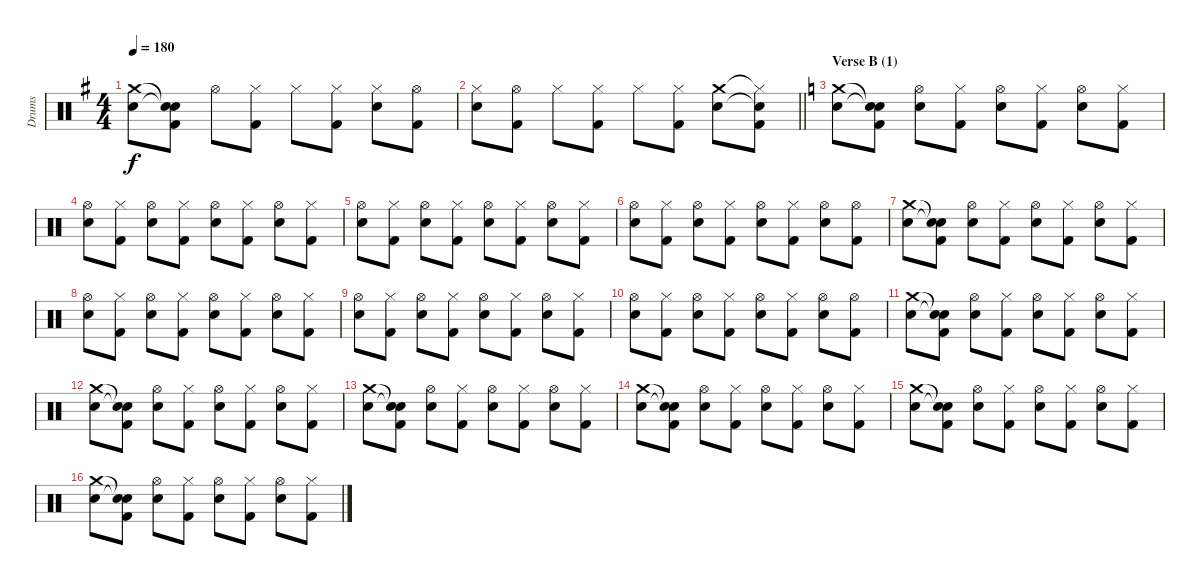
\track ("Drums" "Drums") {instrument percussion}
\staff {score}
\articulation defaults
\ts (4 4)
\tempo 180
\clef neutral
\ks g
("Crash medium (hit)" "Electric Snare (hit)").8{dy f} ("Snare (hit)"{t} "Snare (hit)"{t} "Kick (hit) 2").8 "Hi-Hat (open)".8 ("Hi-Hat (closed)" "Kick (hit) 2").8 "Hi-Hat (closed)".8 ("Hi-Hat (closed)" "Kick (hit) 2").8 ("Hi-Hat (closed)" "Electric Snare (hit)").8 ("Hi-Hat (open)" "Kick (hit) 2").8 |
\barLineRight lightlight
("Hi-Hat (closed)" "Electric Snare (hit)").8 ("Hi-Hat (open)" "Kick (hit) 2").8 "Hi-Hat (closed)".8 ("Hi-Hat (closed)" "Kick (hit) 2").8 "Hi-Hat (closed)".8 ("Hi-Hat (closed)" "Kick (hit) 2").8 ("Crash medium (hit)" "Electric Snare (hit)").8 ("Hi-Hat (closed)"{t} "Snare (hit)"{t} "Kick (hit) 2").8 |
\section ("" "Verse B (1)")
\ks c
("Crash medium (hit)" "Electric Snare (hit)").8 ("Snare (hit)"{t} "Snare (hit)"{t} "Kick (hit) 2").8 ("Hi-Hat (open)" "Electric Snare (hit)").8 ("Hi-Hat (closed)" "Kick (hit) 2").8 ("Hi-Hat (open)" "Electric Snare (hit)").8 ("Hi-Hat (closed)" "Kick (hit) 2").8 ("Hi-Hat (open)" "Electric Snare (hit)").8 ("Hi-Hat (closed)" "Kick (hit) 2").8 |
("Hi-Hat (open)" "Electric Snare (hit)").8 ("Hi-Hat (closed)" "Kick (hit) 2").8 ("Hi-Hat (open)" "Electric Snare (hit)").8 ("Hi-Hat (closed)" "Kick (hit) 2").8 ("Hi-Hat (open)" "Electric Snare (hit)").8 ("Hi-Hat (closed)" "Kick (hit) 2").8 ("Hi-Hat (open)" "Electric Snare (hit)").8 ("Hi-Hat (closed)" "Kick (hit) 2").8 |
("Hi-Hat (open)" "Electric Snare (hit)").8 ("Hi-Hat (closed)" "Kick (hit) 2").8 ("Hi-Hat (open)" "Electric Snare (hit)").8 ("Hi-Hat (closed)" "Kick (hit) 2").8 ("Hi-Hat (open)" "Electric Snare (hit)").8 ("Hi-Hat (closed)" "Kick (hit) 2").8 ("Hi-Hat (open)" "Electric Snare (hit)").8 ("Hi-Hat (closed)" "Kick (hit) 2").8 |
("Hi-Hat (open)" "Electric Snare (hit)").8 ("Hi-Hat (closed)" "Kick (hit) 2").8 ("Hi-Hat (open)" "Electric Snare (hit)").8 ("Hi-Hat (closed)" "Kick (hit) 2").8 ("Hi-Hat (open)" "Electric Snare (hit)").8 ("Hi-Hat (closed)" "Kick (hit) 2").8 ("Hi-Hat (open)" "Electric Snare (hit)").8 ("Hi-Hat (open)" "Kick (hit) 2").8 |
("Crash medium (hit)" "Electric Snare (hit)").8 ("Snare (hit)"{t} "Snare (hit)"{t} "Kick (hit) 2").8 ("Hi-Hat (open)" "Electric Snare (hit)").8 ("Hi-Hat (closed)" "Kick (hit) 2").8 ("Hi-Hat (open)" "Electric Snare (hit)").8 ("Hi-Hat (closed)" "Kick (hit) 2").8 ("Hi-Hat (open)" "Electric Snare (hit)").8 ("Hi-Hat (closed)" "Kick (hit) 2").8 |
("Hi-Hat (open)" "Electric Snare (hit)").8 ("Hi-Hat (closed)" "Kick (hit) 2").8 ("Hi-Hat (open)" "Electric Snare (hit)").8 ("Hi-Hat (closed)" "Kick (hit) 2").8 ("Hi-Hat (open)" "Electric Snare (hit)").8 ("Hi-Hat (closed)" "Kick (hit) 2").8 ("Hi-Hat (open)" "Electric Snare (hit)").8 ("Hi-Hat (closed)" "Kick (hit) 2").8 |
("Hi-Hat (open)" "Electric Snare (hit)").8 ("Hi-Hat (closed)" "Kick (hit) 2").8 ("Hi-Hat (open)" "Electric Snare (hit)").8 ("Hi-Hat (closed)" "Kick (hit) 2").8 ("Hi-Hat (open)" "Electric Snare (hit)").8 ("Hi-Hat (closed)" "Kick (hit) 2").8 ("Hi-Hat (open)" "Electric Snare (hit)").8 ("Hi-Hat (closed)" "Kick (hit) 2").8 |
("Hi-Hat (open)" "Electric Snare (hit)").8 ("Hi-Hat (closed)" "Kick (hit) 2").8 ("Hi-Hat (open)" "Electric Snare (hit)").8 ("Hi-Hat (closed)" "Kick (hit) 2").8 ("Hi-Hat (open)" "Electric Snare (hit)").8 ("Hi-Hat (closed)" "Kick (hit) 2").8 ("Hi-Hat (open)" "Electric Snare (hit)").8 ("Hi-Hat (open)" "Kick (hit) 2").8 |
("Crash medium (hit)" "Electric Snare (hit)").8 ("Snare (hit)"{t} "Snare (hit)"{t} "Kick (hit) 2").8 ("Hi-Hat (open)" "Electric Snare (hit)").8 ("Hi-Hat (closed)" "Kick (hit) 2").8 ("Hi-Hat (open)" "Electric Snare (hit)").8 ("Hi-Hat (closed)" "Kick (hit) 2").8 ("Hi-Hat (open)" "Electric Snare (hit)").8 ("Hi-Hat (closed)" "Kick (hit) 2").8 |
("Crash medium (hit)" "Electric Snare (hit)").8 ("Snare (hit)"{t} "Snare (hit)"{t} "Kick (hit) 2").8 ("Hi-Hat (open)" "Electric Snare (hit)").8 ("Hi-Hat (closed)" "Kick (hit) 2").8 ("Hi-Hat (open)" "Electric Snare (hit)").8 ("Hi-Hat (closed)" "Kick (hit) 2").8 ("Hi-Hat (open)" "Electric Snare (hit)").8 ("Hi-Hat (closed)" "Kick (hit) 2").8 |
("Crash medium (hit)" "Electric Snare (hit)").8 ("Snare (hit)"{t} "Snare (hit)"{t} "Kick (hit) 2").8 ("Hi-Hat (open)" "Electric Snare (hit)").8 ("Hi-Hat (closed)" "Kick (hit) 2").8 ("Hi-Hat (open)" "Electric Snare (hit)").8 ("Hi-Hat (closed)" "Kick (hit) 2").8 ("Hi-Hat (open)" "Electric Snare (hit)").8 ("Hi-Hat (closed)" "Kick (hit) 2").8 |
("Crash medium (hit)" "Electric Snare (hit)").8 ("Snare (hit)"{t} "Snare (hit)"{t} "Kick (hit) 2").8 ("Hi-Hat (open)" "Electric Snare (hit)").8 ("Hi-Hat (closed)" "Kick (hit) 2").8 ("Hi-Hat (open)" "Electric Snare (hit)").8 ("Hi-Hat (closed)" "Kick (hit) 2").8 ("Hi-Hat (open)" "Electric Snare (hit)").8 ("Hi-Hat (closed)" "Kick (hit) 2").8 |
("Crash medium (hit)" "Electric Snare (hit)").8 ("Snare (hit)"{t} "Snare (hit)"{t} "Kick (hit) 2").8 ("Hi-Hat (open)" "Electric Snare (hit)").8 ("Hi-Hat (closed)" "Kick (hit) 2").8 ("Hi-Hat (open)" "Electric Snare (hit)").8 ("Hi-Hat (closed)" "Kick (hit) 2").8 ("Hi-Hat (open)" "Electric Snare (hit)").8 ("Hi-Hat (closed)" "Kick (hit) 2").8 |
("Crash medium (hit)" "Electric Snare (hit)").8 ("Snare (hit)"{t} "Snare (hit)"{t} "Kick (hit) 2").8 ("Hi-Hat (open)" "Electric Snare (hit)").8 ("Hi-Hat (closed)" "Kick (hit) 2").8 ("Hi-Hat (open)" "Electric Snare (hit)").8 ("Hi-Hat (closed)" "Kick (hit) 2").8 ("Hi-Hat (open)" "Electric Snare (hit)").8 ("Hi-Hat (closed)" "Kick (hit) 2").8
